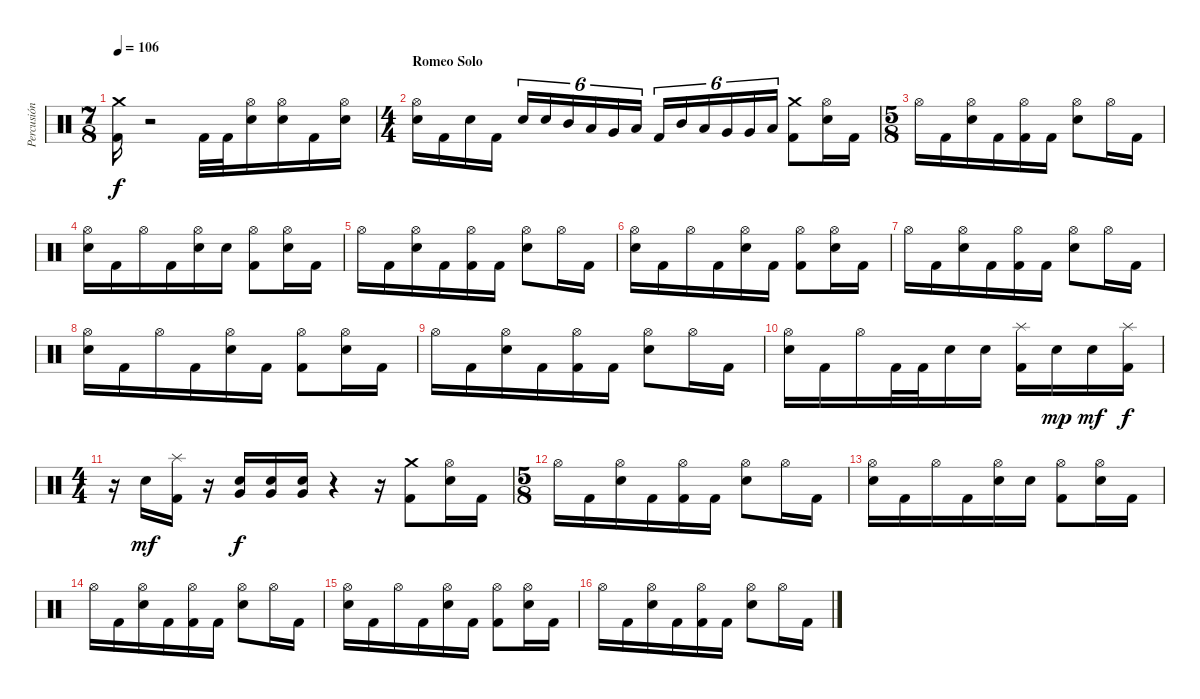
\track ("Percusión" "Percusión") {instrument percussion}
\staff {score}
\articulation defaults
\ts (7 8)
\tempo 106
\clef neutral
\ks c
("Crash medium (hit)" "Kick (hit) 2").16{dy f} r.2 "Kick (hit) 2".32 "Kick (hit) 2".32 ("Hi-Hat (open)" "Electric Snare (hit)").16 ("Hi-Hat (open)" "Electric Snare (hit)").16 "Kick (hit) 2".16 ("Hi-Hat (open)" "Electric Snare (hit)").16 |
\ts (4 4)
\section ("" "Romeo Solo")
("Electric Snare (hit)" "Hi-Hat (open)").16 "Kick (hit) 2".16 "Electric Snare (hit)".16 "Kick (hit) 2".16 "Electric Snare (hit)".16{tu (6 4)} "Electric Snare (hit)".16{tu (6 4)} "Mid Tom (hit)".16{tu (6 4)} "Low Tom (hit)".16{tu (6 4)} "Very Low Tom (hit)".16{tu (6 4)} "Low Floor Tom (hit)".16{tu (6 4)} "Kick (hit) 2".16{tu (6 4)} "Mid Tom (hit)".16{tu (6 4)} "Low Tom (hit)".16{tu (6 4)} "Very Low Tom (hit)".16{tu (6 4)} "Very Low Tom (hit)".16{tu (6 4)} "Low Floor Tom (hit)".16{tu (6 4)} ("Kick (hit) 2" "Crash medium (hit)").8 ("Electric Snare (hit)" "Hi-Hat (open)").16 "Kick (hit) 2".16 |
\ts (5 8)
"Hi-Hat (open)".16 "Kick (hit) 2".16 ("Electric Snare (hit)" "Hi-Hat (open)").16 "Kick (hit) 2".16 ("Kick (hit) 2" "Hi-Hat (open)").16 "Kick (hit) 2".16 ("Electric Snare (hit)" "Hi-Hat (open)").8 "Hi-Hat (open)".16 "Kick (hit) 2".16 |
("Electric Snare (hit)" "Hi-Hat (open)").16 "Kick (hit) 2".16 "Hi-Hat (open)".16 "Kick (hit) 2".16 ("Electric Snare (hit)" "Hi-Hat (open)").16 "Electric Snare (hit)".16 ("Kick (hit) 2" "Hi-Hat (open)").8 ("Electric Snare (hit)" "Hi-Hat (open)").16 "Kick (hit) 2".16 |
"Hi-Hat (open)".16 "Kick (hit) 2".16 ("Electric Snare (hit)" "Hi-Hat (open)").16 "Kick (hit) 2".16 ("Kick (hit) 2" "Hi-Hat (open)").16 "Kick (hit) 2".16 ("Electric Snare (hit)" "Hi-Hat (open)").8 "Hi-Hat (open)".16 "Kick (hit) 2".16 |
("Electric Snare (hit)" "Hi-Hat (open)").16 "Kick (hit) 2".16 "Hi-Hat (open)".16 "Kick (hit) 2".16 ("Electric Snare (hit)" "Hi-Hat (open)").16 "Kick (hit) 2".16 ("Kick (hit) 2" "Hi-Hat (open)").8 ("Electric Snare (hit)" "Hi-Hat (open)").16 "Kick (hit) 2".16 |
"Hi-Hat (open)".16 "Kick (hit) 2".16 ("Electric Snare (hit)" "Hi-Hat (open)").16 "Kick (hit) 2".16 ("Kick (hit) 2" "Hi-Hat (open)").16 "Kick (hit) 2".16 ("Electric Snare (hit)" "Hi-Hat (open)").8 "Hi-Hat (open)".16 "Kick (hit) 2".16 |
("Electric Snare (hit)" "Hi-Hat (open)").16 "Kick (hit) 2".16 "Hi-Hat (open)".16 "Kick (hit) 2".16 ("Electric Snare (hit)" "Hi-Hat (open)").16 "Kick (hit) 2".16 ("Kick (hit) 2" "Hi-Hat (open)").8 ("Electric Snare (hit)" "Hi-Hat (open)").16 "Kick (hit) 2".16 |
"Hi-Hat (open)".16 "Kick (hit) 2".16 ("Electric Snare (hit)" "Hi-Hat (open)").16 "Kick (hit) 2".16 ("Kick (hit) 2" "Hi-Hat (open)").16 "Kick (hit) 2".16 ("Electric Snare (hit)" "Hi-Hat (open)").8 "Hi-Hat (open)".16 "Kick (hit) 2".16 |
("Electric Snare (hit)" "Hi-Hat (open)").16 "Kick (hit) 2".16 "Hi-Hat (open)".16 "Kick (hit) 2".32 "Kick (hit) 2".32 "Electric Snare (hit)".16 "Electric Snare (hit)".16 ("Splash (hit)" "Kick (hit) 2").16 "Electric Snare (hit)".16{dy mp} "Electric Snare (hit)".16{dy mf} ("Splash (hit)" "Kick (hit) 2").16{dy f} |
\ts (4 4)
r.16 "Electric Snare (hit)".16{dy mf} ("Splash (hit)" "Kick (hit) 2").16 r.16 ("Very Low Tom (hit)" "Electric Snare (hit)").16{dy f} ("Very Low Tom (hit)" "Electric Snare (hit)").16 ("Very Low Tom (hit)" "Electric Snare (hit)").16 r.4 r.16 ("Kick (hit) 2" "Crash medium (hit)").8 ("Electric Snare (hit)" "Hi-Hat (open)").16 "Kick (hit) 2".16 |
\ts (5 8)
"Hi-Hat (open)".16 "Kick (hit) 2".16 ("Electric Snare (hit)" "Hi-Hat (open)").16 "Kick (hit) 2".16 ("Kick (hit) 2" "Hi-Hat (open)").16 "Kick (hit) 2".16 ("Electric Snare (hit)" "Hi-Hat (open)").8 "Hi-Hat (open)".16 "Kick (hit) 2".16 |
("Electric Snare (hit)" "Hi-Hat (open)").16 "Kick (hit) 2".16 "Hi-Hat (open)".16 "Kick (hit) 2".16 ("Electric Snare (hit)" "Hi-Hat (open)").16 "Electric Snare (hit)".16 ("Kick (hit) 2" "Hi-Hat (open)").8 ("Electric Snare (hit)" "Hi-Hat (open)").16 "Kick (hit) 2".16 |
"Hi-Hat (open)".16 "Kick (hit) 2".16 ("Electric Snare (hit)" "Hi-Hat (open)").16 "Kick (hit) 2".16 ("Kick (hit) 2" "Hi-Hat (open)").16 "Kick (hit) 2".16 ("Electric Snare (hit)" "Hi-Hat (open)").8 "Hi-Hat (open)".16 "Kick (hit) 2".16 |
("Electric Snare (hit)" "Hi-Hat (open)").16 "Kick (hit) 2".16 "Hi-Hat (open)".16 "Kick (hit) 2".16 ("Electric Snare (hit)" "Hi-Hat (open)").16 "Kick (hit) 2".16 ("Kick (hit) 2" "Hi-Hat (open)").8 ("Electric Snare (hit)" "Hi-Hat (open)").16 "Kick (hit) 2".16 |
"Hi-Hat (open)".16 "Kick (hit) 2".16 ("Electric Snare (hit)" "Hi-Hat (open)").16 "Kick (hit) 2".16 ("Kick (hit) 2" "Hi-Hat (open)").16 "Kick (hit) 2".16 ("Electric Snare (hit)" "Hi-Hat (open)").8 "Hi-Hat (open)".16 "Kick (hit) 2".16
